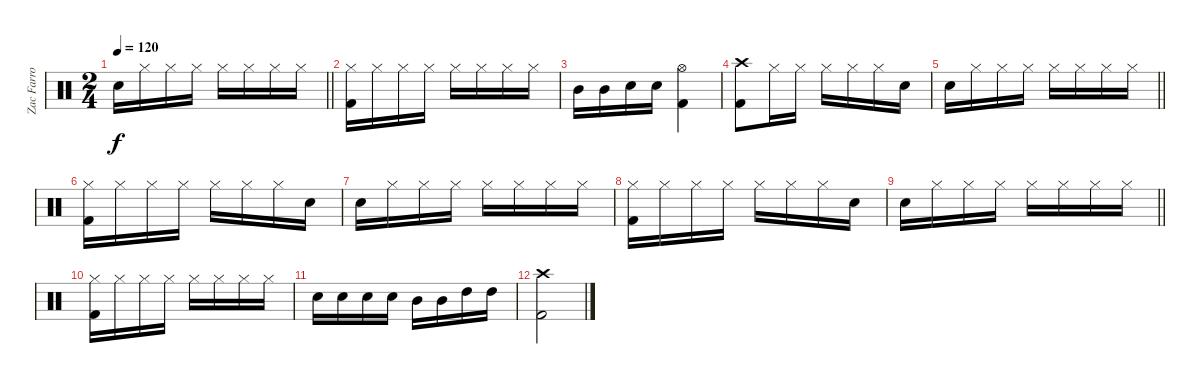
\track ("Zac Farro" "Zac Farro") {instrument percussion}
\staff {score}
\articulation defaults
\ts (2 4)
\tempo 120
\clef neutral
\barLineRight lightlight
\ks c "Electric Snare (hit)".16{dy f} "Hi-Hat (closed)".16 "Hi-Hat (closed)".16 "Hi-Hat (closed)".16 "Hi-Hat (closed)".16 "Hi-Hat (closed)".16 "Hi-Hat (closed)".16 "Hi-Hat (closed)".16
|
("Hi-Hat (closed)" "Kick (hit) 2").16 "Hi-Hat (closed)".16 "Hi-Hat (closed)".16 "Hi-Hat (closed)".16 "Hi-Hat (closed)".16 "Hi-Hat (closed)".16 "Hi-Hat (closed)".16 "Hi-Hat (closed)".16 |
"Mid Tom (hit)".16 "Mid Tom (hit)".16 "Electric Snare (hit)".16 "Electric Snare (hit)".16 ("Kick (hit) 2" "Hi-Hat (open)").4 |
("Kick (hit) 2" "Crash high (hit)").8 "Hi-Hat (closed)".16 "Hi-Hat (closed)".16 "Hi-Hat (closed)".16 "Hi-Hat (closed)".16 "Hi-Hat (closed)".16 "Electric Snare (hit)".16 |
\barLineRight lightlight "Electric Snare (hit)".16 "Hi-Hat (closed)".16 "Hi-Hat (closed)".16 "Hi-Hat (closed)".16 "Hi-Hat (closed)".16 "Hi-Hat (closed)".16 "Hi-Hat (closed)".16 "Hi-Hat (closed)".16
|
("Hi-Hat (closed)" "Kick (hit) 2").16 "Hi-Hat (closed)".16 "Hi-Hat (closed)".16 "Hi-Hat (closed)".16 "Hi-Hat (closed)".16 "Hi-Hat (closed)".16 "Hi-Hat (closed)".16 "Electric Snare (hit)".16 |
"Electric Snare (hit)".16 "Hi-Hat (closed)".16 "Hi-Hat (closed)".16 "Hi-Hat (closed)".16 "Hi-Hat (closed)".16 "Hi-Hat (closed)".16 "Hi-Hat (closed)".16 "Hi-Hat (closed)".16 |
("Hi-Hat (closed)" "Kick (hit) 2").16 "Hi-Hat (closed)".16 "Hi-Hat (closed)".16 "Hi-Hat (closed)".16 "Hi-Hat (closed)".16 "Hi-Hat (closed)".16 "Hi-Hat (closed)".16 "Electric Snare (hit)".16 |
\barLineRight lightlight "Electric Snare (hit)".16 "Hi-Hat (closed)".16 "Hi-Hat (closed)".16 "Hi-Hat (closed)".16 "Hi-Hat (closed)".16 "Hi-Hat (closed)".16 "Hi-Hat (closed)".16 "Hi-Hat (closed)".16
|
("Hi-Hat (closed)" "Kick (hit) 2").16 "Hi-Hat (closed)".16 "Hi-Hat (closed)".16 "Hi-Hat (closed)".16 "Hi-Hat (closed)".16 "Hi-Hat (closed)".16 "Hi-Hat (closed)".16 "Hi-Hat (closed)".16 |
"Electric Snare (hit)".16 "Electric Snare (hit)".16 "Electric Snare (hit)".16 "Electric Snare (hit)".16 "Mid Tom (hit)".16 "Mid Tom (hit)".16 "High Tom (hit)".16 "High Tom (hit)".16 |
("Crash high (hit)" "Kick (hit) 2").2
